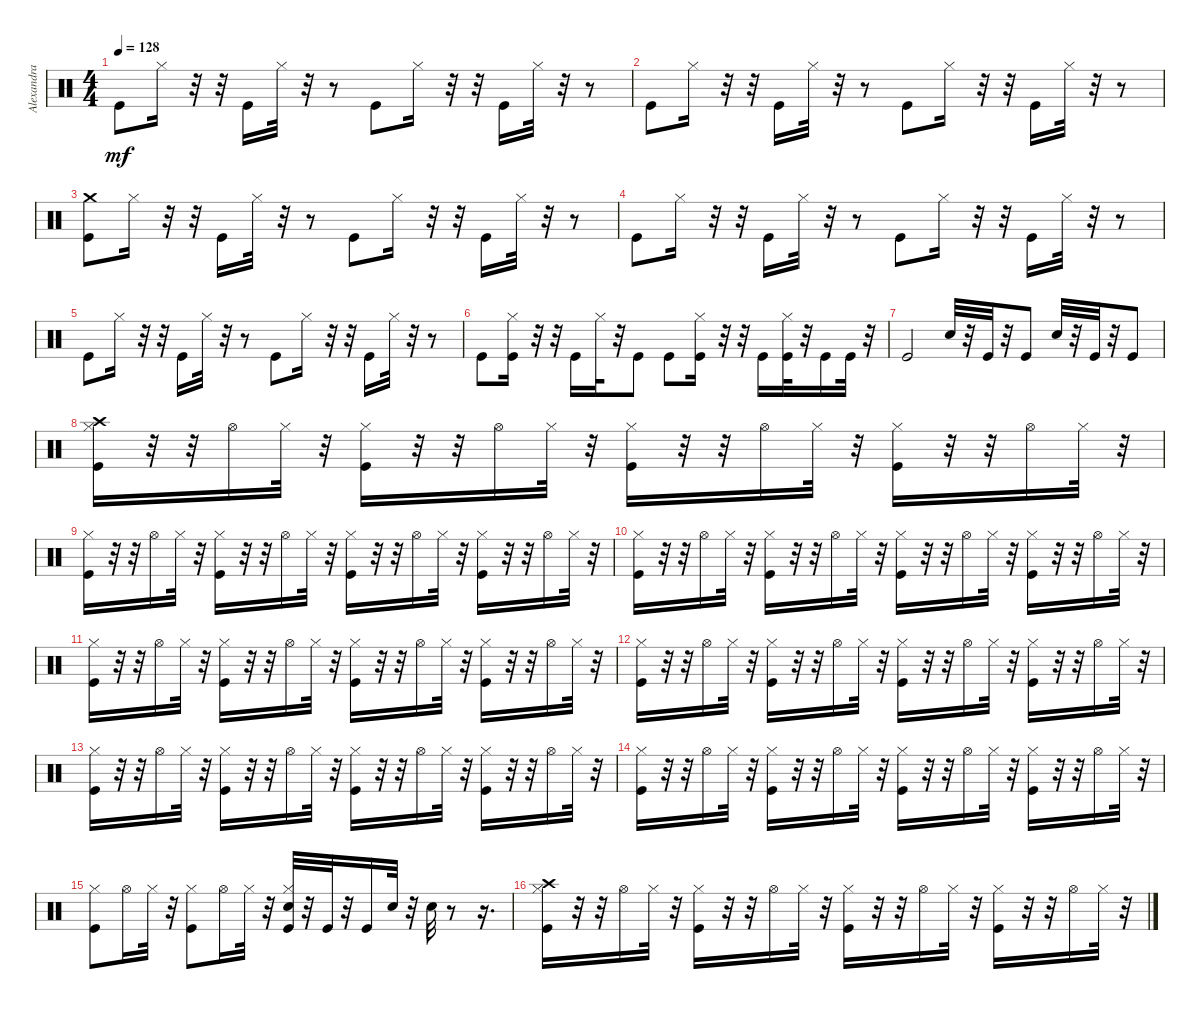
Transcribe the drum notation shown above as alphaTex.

\track ("Alexandra Stan - Mr Saxobeat" "Alexandra ") {instrument percussion}
\staff {score}
\articulation defaults
\ts (4 4)
\tempo 128
\clef neutral
\ks c "Kick (hit)".8{dy mf} "Hi-Hat (closed)".16
r.32 r.32 "Kick (hit)".16 "Hi-Hat (closed)".32 r.32 r.8 "Kick (hit)".8 "Hi-Hat (closed)".16 r.32 r.32 "Kick (hit)".16 "Hi-Hat (closed)".32 r.32 r.8 |
"Kick (hit)".8 "Hi-Hat (closed)".16 r.32 r.32 "Kick (hit)".16 "Hi-Hat (closed)".32 r.32 r.8 "Kick (hit)".8 "Hi-Hat (closed)".16 r.32 r.32 "Kick (hit)".16 "Hi-Hat (closed)".32 r.32 r.8 |
("Kick (hit)" "Crash medium (hit)").8 "Hi-Hat (closed)".16 r.32 r.32 "Kick (hit)".16 "Hi-Hat (closed)".32 r.32 r.8 "Kick (hit)".8 "Hi-Hat (closed)".16 r.32 r.32 "Kick (hit)".16 "Hi-Hat (closed)".32 r.32 r.8 |
"Kick (hit)".8 "Hi-Hat (closed)".16 r.32 r.32 "Kick (hit)".16 "Hi-Hat (closed)".32 r.32 r.8 "Kick (hit)".8 "Hi-Hat (closed)".16 r.32 r.32 "Kick (hit)".16 "Hi-Hat (closed)".32 r.32 r.8 |
"Kick (hit)".8 "Hi-Hat (closed)".16 r.32 r.32 "Kick (hit)".16 "Hi-Hat (closed)".32 r.32 r.8 "Kick (hit)".8 "Hi-Hat (closed)".16 r.32 r.32 "Kick (hit)".16 "Hi-Hat (closed)".32 r.32 r.8 |
"Kick (hit)".8 ("Kick (hit)" "Hi-Hat (closed)").16 r.32 r.32 "Kick (hit)".16 "Hi-Hat (closed)".32 r.32 "Kick (hit)".8 "Kick (hit)".8 ("Kick (hit)" "Hi-Hat (closed)").16 r.32 r.32 "Kick (hit)".16 ("Kick (hit)" "Hi-Hat (closed)").32 r.32 "Kick (hit)".16 "Kick (hit)".32 r.32 |
"Kick (hit)".2 "Snare (hit) 2".32 r.32 "Kick (hit)".32 r.32 "Kick (hit)".8 "Snare (hit) 2".32 r.32 "Kick (hit)".32 r.32 "Kick (hit)".8 |
("Kick (hit)" "Hi-Hat (closed)" "Crash high (hit)").16 r.32 r.32 "Hi-Hat (open)".16 "Hi-Hat (closed)".32 r.32 ("Kick (hit)" "Hi-Hat (closed)").16 r.32 r.32 "Hi-Hat (open)".16 "Hi-Hat (closed)".32 r.32 ("Kick (hit)" "Hi-Hat (closed)").16 r.32 r.32 "Hi-Hat (open)".16 "Hi-Hat (closed)".32 r.32 ("Kick (hit)" "Hi-Hat (closed)").16 r.32 r.32 "Hi-Hat (open)".16 "Hi-Hat (closed)".32 r.32 |
("Kick (hit)" "Hi-Hat (closed)").16 r.32 r.32 "Hi-Hat (open)".16 "Hi-Hat (closed)".32 r.32 ("Kick (hit)" "Hi-Hat (closed)").16 r.32 r.32 "Hi-Hat (open)".16 "Hi-Hat (closed)".32 r.32 ("Kick (hit)" "Hi-Hat (closed)").16 r.32 r.32 "Hi-Hat (open)".16 "Hi-Hat (closed)".32 r.32 ("Kick (hit)" "Hi-Hat (closed)").16 r.32 r.32 "Hi-Hat (open)".16 "Hi-Hat (closed)".32 r.32 |
("Kick (hit)" "Hi-Hat (closed)").16 r.32 r.32 "Hi-Hat (open)".16 "Hi-Hat (closed)".32 r.32 ("Kick (hit)" "Hi-Hat (closed)").16 r.32 r.32 "Hi-Hat (open)".16 "Hi-Hat (closed)".32 r.32 ("Kick (hit)" "Hi-Hat (closed)").16 r.32 r.32 "Hi-Hat (open)".16 "Hi-Hat (closed)".32 r.32 ("Kick (hit)" "Hi-Hat (closed)").16 r.32 r.32 "Hi-Hat (open)".16 "Hi-Hat (closed)".32 r.32 |
("Kick (hit)" "Hi-Hat (closed)").16 r.32 r.32 "Hi-Hat (open)".16 "Hi-Hat (closed)".32 r.32 ("Kick (hit)" "Hi-Hat (closed)").16 r.32 r.32 "Hi-Hat (open)".16 "Hi-Hat (closed)".32 r.32 ("Kick (hit)" "Hi-Hat (closed)").16 r.32 r.32 "Hi-Hat (open)".16 "Hi-Hat (closed)".32 r.32 ("Kick (hit)" "Hi-Hat (closed)").16 r.32 r.32 "Hi-Hat (open)".16 "Hi-Hat (closed)".32 r.32 |
("Kick (hit)" "Hi-Hat (closed)").16 r.32 r.32 "Hi-Hat (open)".16 "Hi-Hat (closed)".32 r.32 ("Kick (hit)" "Hi-Hat (closed)").16 r.32 r.32 "Hi-Hat (open)".16 "Hi-Hat (closed)".32 r.32 ("Kick (hit)" "Hi-Hat (closed)").16 r.32 r.32 "Hi-Hat (open)".16 "Hi-Hat (closed)".32 r.32 ("Kick (hit)" "Hi-Hat (closed)").16 r.32 r.32 "Hi-Hat (open)".16 "Hi-Hat (closed)".32 r.32 |
("Kick (hit)" "Hi-Hat (closed)").16 r.32 r.32 "Hi-Hat (open)".16 "Hi-Hat (closed)".32 r.32 ("Kick (hit)" "Hi-Hat (closed)").16 r.32 r.32 "Hi-Hat (open)".16 "Hi-Hat (closed)".32 r.32 ("Kick (hit)" "Hi-Hat (closed)").16 r.32 r.32 "Hi-Hat (open)".16 "Hi-Hat (closed)".32 r.32 ("Kick (hit)" "Hi-Hat (closed)").16 r.32 r.32 "Hi-Hat (open)".16 "Hi-Hat (closed)".32 r.32 |
("Kick (hit)" "Hi-Hat (closed)").16 r.32 r.32 "Hi-Hat (open)".16 "Hi-Hat (closed)".32 r.32 ("Kick (hit)" "Hi-Hat (closed)").16 r.32 r.32 "Hi-Hat (open)".16 "Hi-Hat (closed)".32 r.32 ("Kick (hit)" "Hi-Hat (closed)").16 r.32 r.32 "Hi-Hat (open)".16 "Hi-Hat (closed)".32 r.32 ("Kick (hit)" "Hi-Hat (closed)").16 r.32 r.32 "Hi-Hat (open)".16 "Hi-Hat (closed)".32 r.32 |
("Kick (hit)" "Hi-Hat (closed)").8 "Hi-Hat (open)".16 "Hi-Hat (closed)".32 r.32 ("Kick (hit)" "Hi-Hat (closed)").8 "Hi-Hat (open)".16 "Hi-Hat (closed)".32 r.32 ("Kick (hit)" "Snare (hit) 2" "Hi-Hat (closed)").32 r.32 "Kick (hit)".32 r.32 "Kick (hit)".16 "Snare (hit) 2".32 r.32 "Snare (hit) 2".32 r.8 r.16{d} |
("Kick (hit)" "Hi-Hat (closed)" "Crash high (hit)").16 r.32 r.32 "Hi-Hat (open)".16 "Hi-Hat (closed)".32 r.32 ("Kick (hit)" "Hi-Hat (closed)").16 r.32 r.32 "Hi-Hat (open)".16 "Hi-Hat (closed)".32 r.32 ("Kick (hit)" "Hi-Hat (closed)").16 r.32 r.32 "Hi-Hat (open)".16 "Hi-Hat (closed)".32 r.32 ("Kick (hit)" "Hi-Hat (closed)").16 r.32 r.32 "Hi-Hat (open)".16 "Hi-Hat (closed)".32 r.32
